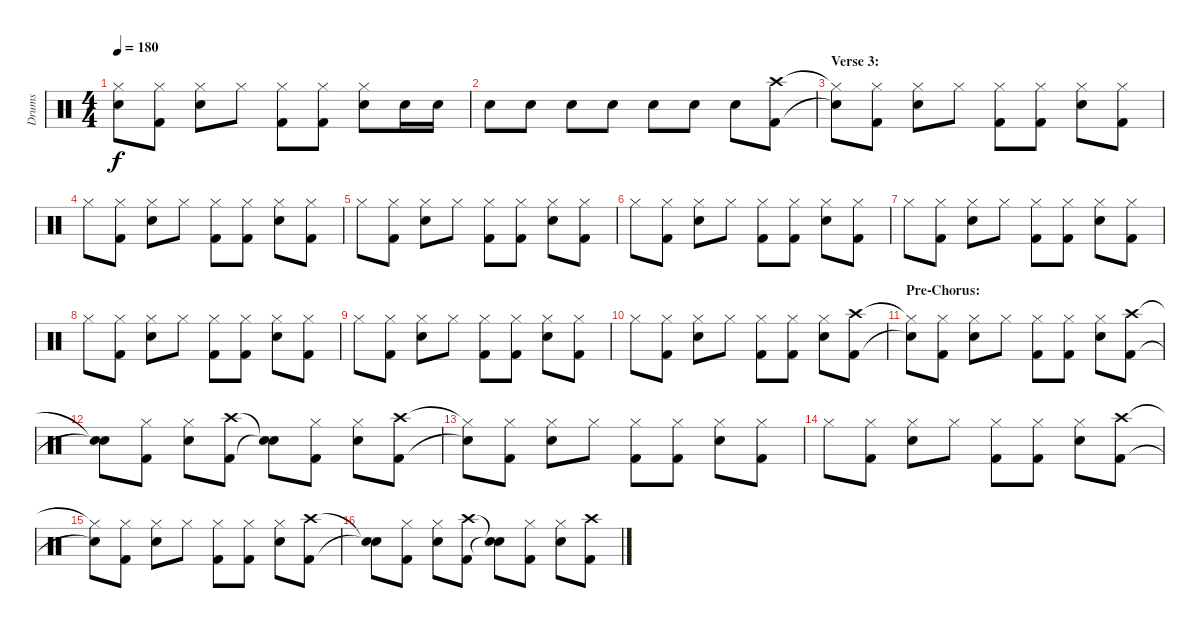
\track ("Drums" "Drums") {instrument percussion}
\staff {score}
\articulation defaults
\ts (4 4)
\tempo 180
\clef neutral
\ks c
("Hi-Hat (closed)"{t} "Snare (hit)"{t}).8{dy f} ("Hi-Hat (closed)" "Kick (hit) 2").8 ("Hi-Hat (closed)" "Snare (hit) 2").8 "Hi-Hat (closed)".8 ("Hi-Hat (closed)" "Kick (hit) 2").8 ("Hi-Hat (closed)" "Kick (hit) 2").8 ("Hi-Hat (closed)" "Snare (hit) 2").8 "Snare (hit) 2".16 "Snare (hit) 2".16 |
"Snare (hit) 2".8 "Snare (hit) 2".8 "Snare (hit) 2".8 "Snare (hit) 2".8 "Snare (hit) 2".8 "Snare (hit) 2".8 "Snare (hit) 2".8 ("Crash high (hit)" "Kick (hit) 2").8 |
\section ("" "Verse 3:")
("Hi-Hat (closed)"{t} "Snare (hit)"{t}).8 ("Hi-Hat (closed)" "Kick (hit) 2").8 ("Hi-Hat (closed)" "Snare (hit) 2").8 "Hi-Hat (closed)".8 ("Hi-Hat (closed)" "Kick (hit) 2").8 ("Hi-Hat (closed)" "Kick (hit) 2").8 ("Hi-Hat (closed)" "Snare (hit) 2").8 ("Hi-Hat (closed)" "Kick (hit) 2").8 |
"Hi-Hat (closed)".8 ("Hi-Hat (closed)" "Kick (hit) 2").8 ("Hi-Hat (closed)" "Snare (hit) 2").8 "Hi-Hat (closed)".8 ("Hi-Hat (closed)" "Kick (hit) 2").8 ("Hi-Hat (closed)" "Kick (hit) 2").8 ("Hi-Hat (closed)" "Snare (hit) 2").8 ("Hi-Hat (closed)" "Kick (hit) 2").8 |
"Hi-Hat (closed)".8 ("Hi-Hat (closed)" "Kick (hit) 2").8 ("Hi-Hat (closed)" "Snare (hit) 2").8 "Hi-Hat (closed)".8 ("Hi-Hat (closed)" "Kick (hit) 2").8 ("Hi-Hat (closed)" "Kick (hit) 2").8 ("Hi-Hat (closed)" "Snare (hit) 2").8 ("Hi-Hat (closed)" "Kick (hit) 2").8 |
"Hi-Hat (closed)".8 ("Hi-Hat (closed)" "Kick (hit) 2").8 ("Hi-Hat (closed)" "Snare (hit) 2").8 "Hi-Hat (closed)".8 ("Hi-Hat (closed)" "Kick (hit) 2").8 ("Hi-Hat (closed)" "Kick (hit) 2").8 ("Hi-Hat (closed)" "Snare (hit) 2").8 ("Hi-Hat (closed)" "Kick (hit) 2").8 |
"Hi-Hat (closed)".8 ("Hi-Hat (closed)" "Kick (hit) 2").8 ("Hi-Hat (closed)" "Snare (hit) 2").8 "Hi-Hat (closed)".8 ("Hi-Hat (closed)" "Kick (hit) 2").8 ("Hi-Hat (closed)" "Kick (hit) 2").8 ("Hi-Hat (closed)" "Snare (hit) 2").8 ("Hi-Hat (closed)" "Kick (hit) 2").8 |
"Hi-Hat (closed)".8 ("Hi-Hat (closed)" "Kick (hit) 2").8 ("Hi-Hat (closed)" "Snare (hit) 2").8 "Hi-Hat (closed)".8 ("Hi-Hat (closed)" "Kick (hit) 2").8 ("Hi-Hat (closed)" "Kick (hit) 2").8 ("Hi-Hat (closed)" "Snare (hit) 2").8 ("Hi-Hat (closed)" "Kick (hit) 2").8 |
"Hi-Hat (closed)".8 ("Hi-Hat (closed)" "Kick (hit) 2").8 ("Hi-Hat (closed)" "Snare (hit) 2").8 "Hi-Hat (closed)".8 ("Hi-Hat (closed)" "Kick (hit) 2").8 ("Hi-Hat (closed)" "Kick (hit) 2").8 ("Hi-Hat (closed)" "Snare (hit) 2").8 ("Hi-Hat (closed)" "Kick (hit) 2").8 |
"Hi-Hat (closed)".8 ("Hi-Hat (closed)" "Kick (hit) 2").8 ("Hi-Hat (closed)" "Snare (hit) 2").8 "Hi-Hat (closed)".8 ("Hi-Hat (closed)" "Kick (hit) 2").8 ("Hi-Hat (closed)" "Kick (hit) 2").8 ("Hi-Hat (closed)" "Snare (hit) 2").8 ("Crash high (hit)" "Kick (hit) 2").8 |
\section ("" "Pre-Chorus:")
("Hi-Hat (closed)"{t} "Snare (hit)"{t}).8 ("Hi-Hat (closed)" "Kick (hit) 2").8 ("Hi-Hat (closed)" "Snare (hit) 2").8 "Hi-Hat (closed)".8 ("Hi-Hat (closed)" "Kick (hit) 2").8 ("Hi-Hat (closed)" "Kick (hit) 2").8 ("Hi-Hat (closed)" "Snare (hit) 2").8 ("Crash high (hit)" "Kick (hit) 2").8 |
("Snare (hit)"{t} "Snare (hit)"{t}).8 ("Hi-Hat (closed)" "Kick (hit) 2").8 ("Hi-Hat (closed)" "Snare (hit) 2").8 ("Crash high (hit)" "Kick (hit) 2").8 ("Snare (hit)"{t} "Snare (hit)"{t}).8 ("Hi-Hat (closed)" "Kick (hit) 2").8 ("Hi-Hat (closed)" "Snare (hit) 2").8 ("Crash high (hit)" "Kick (hit) 2").8 |
("Hi-Hat (closed)"{t} "Snare (hit)"{t}).8 ("Hi-Hat (closed)" "Kick (hit) 2").8 ("Hi-Hat (closed)" "Snare (hit) 2").8 "Hi-Hat (closed)".8 ("Hi-Hat (closed)" "Kick (hit) 2").8 ("Hi-Hat (closed)" "Kick (hit) 2").8 ("Hi-Hat (closed)" "Snare (hit) 2").8 ("Hi-Hat (closed)" "Kick (hit) 2").8 |
"Hi-Hat (closed)".8 ("Hi-Hat (closed)" "Kick (hit) 2").8 ("Hi-Hat (closed)" "Snare (hit) 2").8 "Hi-Hat (closed)".8 ("Hi-Hat (closed)" "Kick (hit) 2").8 ("Hi-Hat (closed)" "Kick (hit) 2").8 ("Hi-Hat (closed)" "Snare (hit) 2").8 ("Crash high (hit)" "Kick (hit) 2").8 |
("Hi-Hat (closed)"{t} "Snare (hit)"{t}).8 ("Hi-Hat (closed)" "Kick (hit) 2").8 ("Hi-Hat (closed)" "Snare (hit) 2").8 "Hi-Hat (closed)".8 ("Hi-Hat (closed)" "Kick (hit) 2").8 ("Hi-Hat (closed)" "Kick (hit) 2").8 ("Hi-Hat (closed)" "Snare (hit) 2").8 ("Crash high (hit)" "Kick (hit) 2").8 |
("Snare (hit)"{t} "Snare (hit)"{t}).8 ("Hi-Hat (closed)" "Kick (hit) 2").8 ("Hi-Hat (closed)" "Snare (hit) 2").8 ("Crash high (hit)" "Kick (hit) 2").8 ("Snare (hit)"{t} "Snare (hit)"{t}).8 ("Hi-Hat (closed)" "Kick (hit) 2").8 ("Hi-Hat (closed)" "Snare (hit) 2").8 ("Crash high (hit)" "Kick (hit) 2").8
